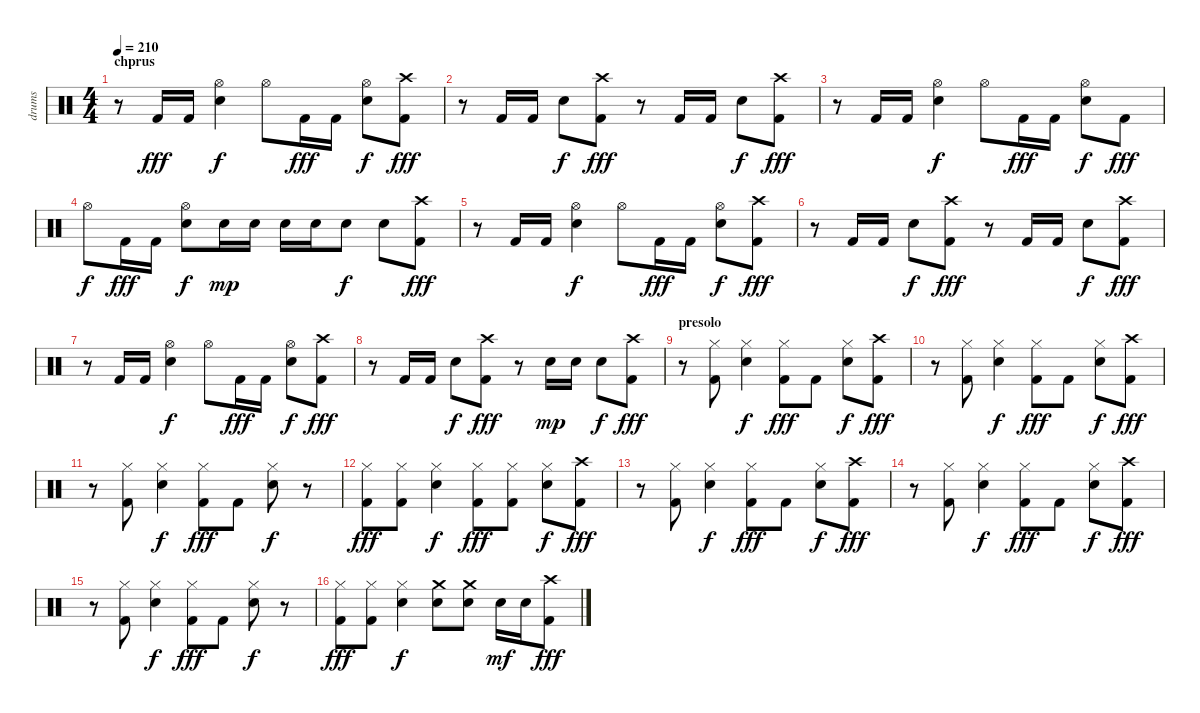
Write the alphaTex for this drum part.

\track ("drums" "drums") {instrument percussion}
\staff {score}
\articulation defaults
\ts (4 4)
\section ("" "chprus")
\tempo 210
\clef neutral
\ks c
r.8{dy fff} "Kick (hit) 2".16 "Kick (hit) 2".16 ("Hi-Hat (open)" "Snare (hit) 2").4{dy f} "Hi-Hat (open)".8 "Kick (hit) 2".16{dy fff} "Kick (hit) 2".16 ("Hi-Hat (open)" "Snare (hit) 2").8{dy f} ("Crash high (hit)" "Kick (hit) 2").8{dy fff} |
r.8 "Kick (hit) 2".16 "Kick (hit) 2".16 "Snare (hit) 2".8{dy f} ("Crash high (hit)" "Kick (hit) 2").8{dy fff} r.8 "Kick (hit) 2".16 "Kick (hit) 2".16 "Snare (hit) 2".8{dy f} ("Crash high (hit)" "Kick (hit) 2").8{dy fff} |
r.8 "Kick (hit) 2".16 "Kick (hit) 2".16 ("Hi-Hat (open)" "Snare (hit) 2").4{dy f} "Hi-Hat (open)".8 "Kick (hit) 2".16{dy fff} "Kick (hit) 2".16 ("Hi-Hat (open)" "Snare (hit) 2").8{dy f} "Kick (hit) 2".8{dy fff} |
"Hi-Hat (open)".8{dy f} "Kick (hit) 2".16{dy fff} "Kick (hit) 2".16 ("Hi-Hat (open)" "Snare (hit) 2").8{dy f} "Snare (hit) 2".16{dy mp} "Snare (hit) 2".16 "Snare (hit) 2".16 "Snare (hit) 2".16 "Snare (hit) 2".8{dy f} "Snare (hit) 2".8 ("Crash high (hit)" "Kick (hit) 2").8{dy fff} |
r.8 "Kick (hit) 2".16 "Kick (hit) 2".16 ("Hi-Hat (open)" "Snare (hit) 2").4{dy f} "Hi-Hat (open)".8 "Kick (hit) 2".16{dy fff} "Kick (hit) 2".16 ("Hi-Hat (open)" "Snare (hit) 2").8{dy f} ("Crash high (hit)" "Kick (hit) 2").8{dy fff} |
r.8 "Kick (hit) 2".16 "Kick (hit) 2".16 "Snare (hit) 2".8{dy f} ("Crash high (hit)" "Kick (hit) 2").8{dy fff} r.8 "Kick (hit) 2".16 "Kick (hit) 2".16 "Snare (hit) 2".8{dy f} ("Crash high (hit)" "Kick (hit) 2").8{dy fff} |
r.8 "Kick (hit) 2".16 "Kick (hit) 2".16 ("Hi-Hat (open)" "Snare (hit) 2").4{dy f} "Hi-Hat (open)".8 "Kick (hit) 2".16{dy fff} "Kick (hit) 2".16 ("Hi-Hat (open)" "Snare (hit) 2").8{dy f} ("Crash high (hit)" "Kick (hit) 2").8{dy fff} |
r.8 "Kick (hit) 2".16 "Kick (hit) 2".16 "Snare (hit) 2".8{dy f} ("Crash high (hit)" "Kick (hit) 2").8{dy fff} r.8 "Snare (hit) 2".16{dy mp} "Snare (hit) 2".16 "Snare (hit) 2".8{dy f} ("Crash high (hit)" "Kick (hit) 2").8{dy fff} |
\section ("" "presolo")
r.8 ("Hi-Hat (closed)" "Kick (hit) 2").8 ("Hi-Hat (closed)" "Snare (hit) 2").4{dy f} ("Hi-Hat (closed)" "Kick (hit) 2").8{dy fff} "Kick (hit) 2".8 ("Hi-Hat (closed)" "Snare (hit) 2").8{dy f} ("Crash high (hit)" "Kick (hit) 2").8{dy fff} |
r.8 ("Hi-Hat (closed)" "Kick (hit) 2").8 ("Hi-Hat (closed)" "Snare (hit) 2").4{dy f} ("Hi-Hat (closed)" "Kick (hit) 2").8{dy fff} "Kick (hit) 2".8 ("Hi-Hat (closed)" "Snare (hit) 2").8{dy f} ("Crash high (hit)" "Kick (hit) 2").8{dy fff} |
r.8 ("Hi-Hat (closed)" "Kick (hit) 2").8 ("Hi-Hat (closed)" "Snare (hit) 2").4{dy f} ("Hi-Hat (closed)" "Kick (hit) 2").8{dy fff} "Kick (hit) 2".8 ("Hi-Hat (closed)" "Snare (hit) 2").8{dy f} r.8 |
("Hi-Hat (closed)" "Kick (hit) 2").8{dy fff} ("Hi-Hat (closed)" "Kick (hit) 2").8 ("Hi-Hat (closed)" "Snare (hit) 2").4{dy f} ("Hi-Hat (closed)" "Kick (hit) 2").8{dy fff} ("Hi-Hat (closed)" "Kick (hit) 2").8 ("Hi-Hat (closed)" "Snare (hit) 2").8{dy f} ("Crash high (hit)" "Kick (hit) 2").8{dy fff} |
r.8 ("Hi-Hat (closed)" "Kick (hit) 2").8 ("Hi-Hat (closed)" "Snare (hit) 2").4{dy f} ("Hi-Hat (closed)" "Kick (hit) 2").8{dy fff} "Kick (hit) 2".8 ("Hi-Hat (closed)" "Snare (hit) 2").8{dy f} ("Crash high (hit)" "Kick (hit) 2").8{dy fff} |
r.8 ("Hi-Hat (closed)" "Kick (hit) 2").8 ("Hi-Hat (closed)" "Snare (hit) 2").4{dy f} ("Hi-Hat (closed)" "Kick (hit) 2").8{dy fff} "Kick (hit) 2".8 ("Hi-Hat (closed)" "Snare (hit) 2").8{dy f} ("Crash high (hit)" "Kick (hit) 2").8{dy fff} |
r.8 ("Hi-Hat (closed)" "Kick (hit) 2").8 ("Hi-Hat (closed)" "Snare (hit) 2").4{dy f} ("Hi-Hat (closed)" "Kick (hit) 2").8{dy fff} "Kick (hit) 2".8 ("Hi-Hat (closed)" "Snare (hit) 2").8{dy f} r.8 |
("Hi-Hat (closed)" "Kick (hit) 2").8{dy fff} ("Hi-Hat (closed)" "Kick (hit) 2").8 ("Hi-Hat (closed)" "Snare (hit) 2").4{dy f} ("Crash medium (hit)" "Snare (hit) 2").8 ("Crash medium (hit)" "Snare (hit) 2").8 "Snare (hit) 2".16{dy mf} "Snare (hit) 2".16 ("Crash high (hit)" "Kick (hit) 2").8{dy fff}
